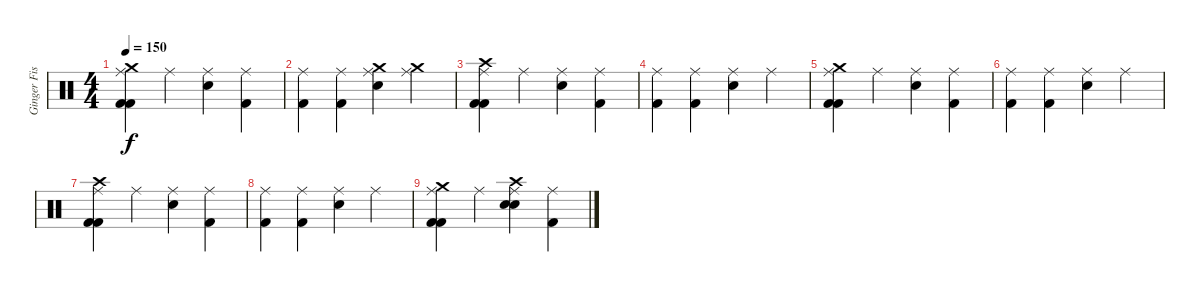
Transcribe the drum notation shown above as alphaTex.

\track ("Ginger Fish" "Ginger Fis") {instrument percussion}
\staff {score}
\articulation defaults
\ts (4 4)
\tempo 150
\clef neutral
\ks c
("Crash medium (hit)" "Ride (middle)" "Kick (hit) 2" "Kick (hit) 2").4{dy f} "Ride (middle)".4 ("Ride (middle)" "Electric Snare (hit)").4 ("Ride (middle)" "Kick (hit) 2").4 |
("Ride (middle)" "Kick (hit) 2").4 ("Ride (middle)" "Kick (hit) 2").4 ("Crash medium (hit)" "Ride (middle)" "Electric Snare (hit)").4 ("Crash medium (hit)" "Ride (middle)").4 |
("Crash high (hit)" "Ride (middle)" "Kick (hit) 2" "Kick (hit) 2").4 "Ride (middle)".4 ("Ride (middle)" "Electric Snare (hit)").4 ("Ride (middle)" "Kick (hit) 2").4 |
("Ride (middle)" "Kick (hit) 2").4 ("Ride (middle)" "Kick (hit) 2").4 ("Ride (middle)" "Electric Snare (hit)").4 "Ride (middle)".4 |
("Crash medium (hit)" "Ride (middle)" "Kick (hit) 2" "Kick (hit) 2").4 "Ride (middle)".4 ("Ride (middle)" "Electric Snare (hit)").4 ("Ride (middle)" "Kick (hit) 2").4 |
("Ride (middle)" "Kick (hit) 2").4 ("Ride (middle)" "Kick (hit) 2").4 ("Ride (middle)" "Electric Snare (hit)").4 "Ride (middle)".4 |
("Crash high (hit)" "Ride (middle)" "Kick (hit) 2" "Kick (hit) 2").4 "Ride (middle)".4 ("Ride (middle)" "Electric Snare (hit)").4 ("Ride (middle)" "Kick (hit) 2").4 |
("Ride (middle)" "Kick (hit) 2").4 ("Ride (middle)" "Kick (hit) 2").4 ("Ride (middle)" "Electric Snare (hit)").4 "Ride (middle)".4 |
("Crash medium (hit)" "Ride (middle)" "Kick (hit) 2" "Kick (hit) 2").4 "Ride (middle)".4 ("Crash high (hit)" "Ride (middle)" "Electric Snare (hit)" "Electric Snare (hit)").4 ("Ride (middle)" "Kick (hit) 2").4
